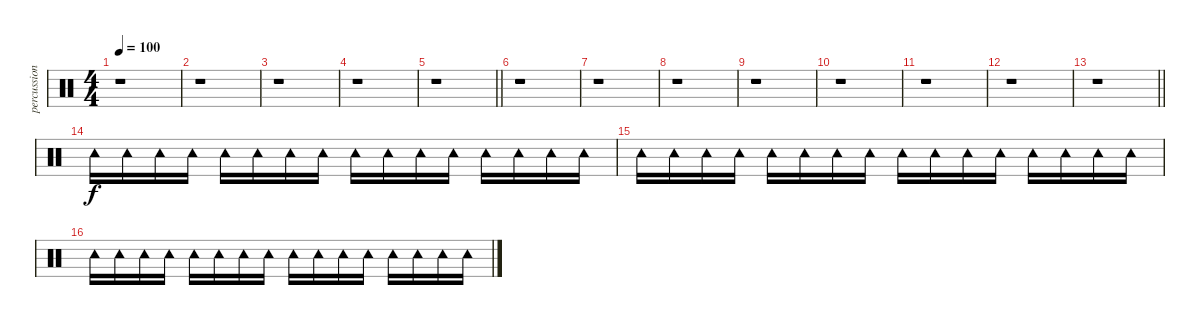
\track ("percussion" "percussion") {instrument percussion}
\staff {score}
\articulation defaults
\ts (4 4)
\tempo 100
\clef neutral
\ks c
r.1{dy f} |
r.1 |
r.1 |
r.1 |
\barLineRight lightlight
r.1 |
r.1 |
r.1 |
r.1 |
r.1 |
r.1 |
r.1 |
r.1 |
\barLineRight lightlight
r.1 |
"Tambourine (hit)".16 "Tambourine (hit)".16 "Tambourine (hit)".16 "Tambourine (hit)".16 "Tambourine (hit)".16 "Tambourine (hit)".16 "Tambourine (hit)".16 "Tambourine (hit)".16 "Tambourine (hit)".16 "Tambourine (hit)".16 "Tambourine (hit)".16 "Tambourine (hit)".16 "Tambourine (hit)".16 "Tambourine (hit)".16 "Tambourine (hit)".16 "Tambourine (hit)".16 |
"Tambourine (hit)".16 "Tambourine (hit)".16 "Tambourine (hit)".16 "Tambourine (hit)".16 "Tambourine (hit)".16 "Tambourine (hit)".16 "Tambourine (hit)".16 "Tambourine (hit)".16 "Tambourine (hit)".16 "Tambourine (hit)".16 "Tambourine (hit)".16 "Tambourine (hit)".16 "Tambourine (hit)".16 "Tambourine (hit)".16 "Tambourine (hit)".16 "Tambourine (hit)".16 |
"Tambourine (hit)".16 "Tambourine (hit)".16 "Tambourine (hit)".16 "Tambourine (hit)".16 "Tambourine (hit)".16 "Tambourine (hit)".16 "Tambourine (hit)".16 "Tambourine (hit)".16 "Tambourine (hit)".16 "Tambourine (hit)".16 "Tambourine (hit)".16 "Tambourine (hit)".16 "Tambourine (hit)".16 "Tambourine (hit)".16 "Tambourine (hit)".16 "Tambourine (hit)".16
